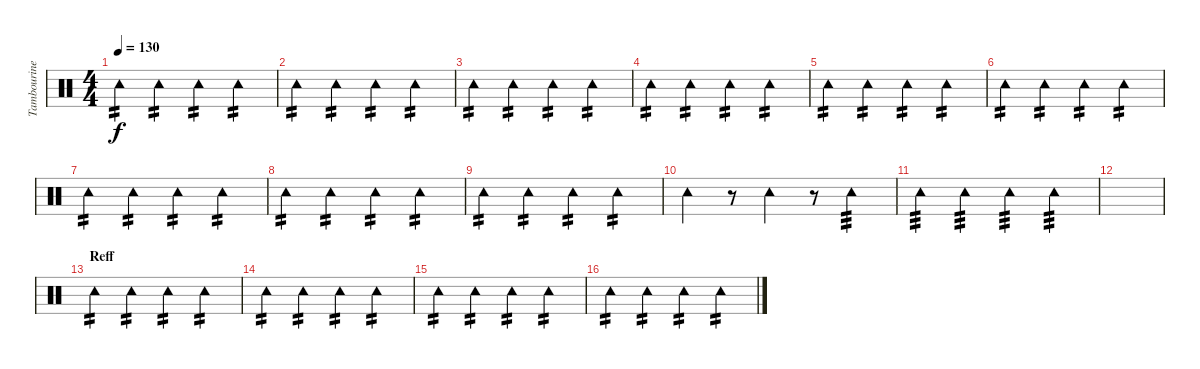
\track ("Tambourine" "Tambourine") {instrument percussion}
\staff {score}
\articulation defaults
\ts (4 4)
\tempo 130
\clef neutral
\ks c "Tambourine (hit)".4{tp 2 dy f} "Tambourine (hit)".4{tp 2} "Tambourine (hit)".4{tp 2} "Tambourine (hit)".4{tp 2}
|
"Tambourine (hit)".4{tp 2} "Tambourine (hit)".4{tp 2} "Tambourine (hit)".4{tp 2} "Tambourine (hit)".4{tp 2} |
"Tambourine (hit)".4{tp 2} "Tambourine (hit)".4{tp 2} "Tambourine (hit)".4{tp 2} "Tambourine (hit)".4{tp 2} |
"Tambourine (hit)".4{tp 2} "Tambourine (hit)".4{tp 2} "Tambourine (hit)".4{tp 2} "Tambourine (hit)".4{tp 2} |
"Tambourine (hit)".4{tp 2} "Tambourine (hit)".4{tp 2} "Tambourine (hit)".4{tp 2} "Tambourine (hit)".4{tp 2} |
"Tambourine (hit)".4{tp 2} "Tambourine (hit)".4{tp 2} "Tambourine (hit)".4{tp 2} "Tambourine (hit)".4{tp 2} |
"Tambourine (hit)".4{tp 2} "Tambourine (hit)".4{tp 2} "Tambourine (hit)".4{tp 2} "Tambourine (hit)".4{tp 2} |
"Tambourine (hit)".4{tp 2} "Tambourine (hit)".4{tp 2} "Tambourine (hit)".4{tp 2} "Tambourine (hit)".4{tp 2} |
"Tambourine (hit)".4{tp 2} "Tambourine (hit)".4{tp 2} "Tambourine (hit)".4{tp 2} "Tambourine (hit)".4{tp 2} |
"Tambourine (hit)".4 r.8 "Tambourine (hit)".4 r.8 "Tambourine (hit)".4{tp 3} |
"Tambourine (hit)".4{tp 3} "Tambourine (hit)".4{tp 3} "Tambourine (hit)".4{tp 3} "Tambourine (hit)".4{tp 3} |
|
\section ("" "Reff")
"Tambourine (hit)".4{tp 2} "Tambourine (hit)".4{tp 2} "Tambourine (hit)".4{tp 2} "Tambourine (hit)".4{tp 2} |
"Tambourine (hit)".4{tp 2} "Tambourine (hit)".4{tp 2} "Tambourine (hit)".4{tp 2} "Tambourine (hit)".4{tp 2} |
"Tambourine (hit)".4{tp 2} "Tambourine (hit)".4{tp 2} "Tambourine (hit)".4{tp 2} "Tambourine (hit)".4{tp 2} |
"Tambourine (hit)".4{tp 2} "Tambourine (hit)".4{tp 2} "Tambourine (hit)".4{tp 2} "Tambourine (hit)".4{tp 2}
